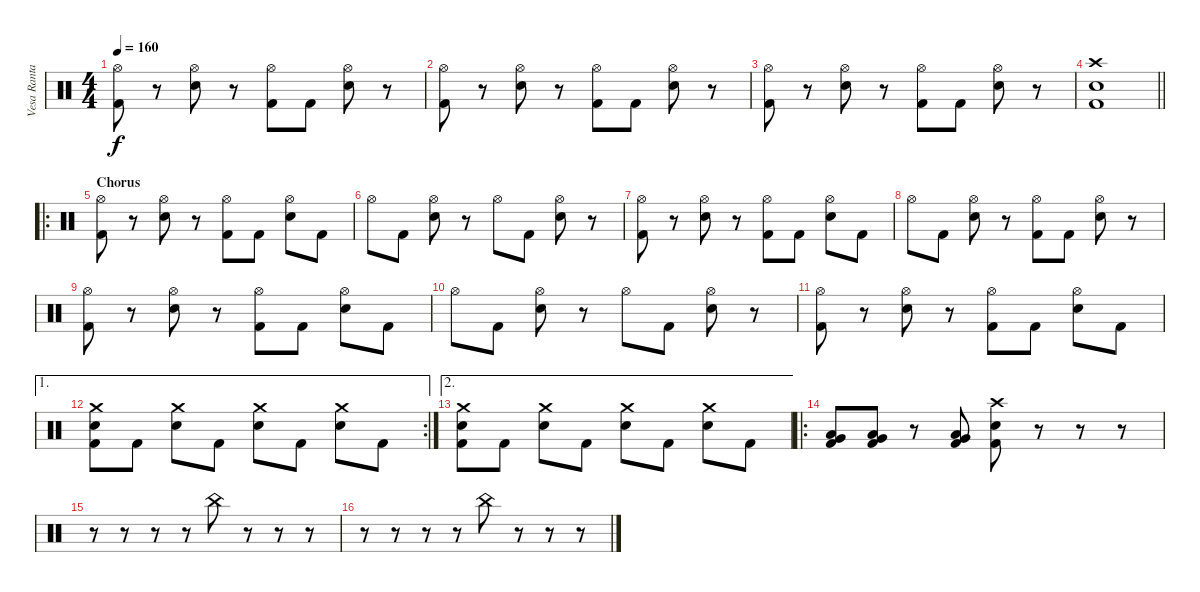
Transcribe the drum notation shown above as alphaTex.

\track ("Vesa Ranta" "Vesa Ranta") {instrument percussion}
\staff {score}
\articulation defaults
\ts (4 4)
\tempo 160
\clef neutral
\ks c
("Hi-Hat (open)" "Kick (hit) 2").8{dy f} r.8 ("Hi-Hat (open)" "Electric Snare (hit)").8 r.8 ("Hi-Hat (open)" "Kick (hit) 2").8 "Kick (hit) 2".8 ("Hi-Hat (open)" "Electric Snare (hit)").8 r.8 |
("Hi-Hat (open)" "Kick (hit) 2").8 r.8 ("Hi-Hat (open)" "Electric Snare (hit)").8 r.8 ("Hi-Hat (open)" "Kick (hit) 2").8 "Kick (hit) 2".8 ("Hi-Hat (open)" "Electric Snare (hit)").8 r.8 |
("Hi-Hat (open)" "Kick (hit) 2").8 r.8 ("Hi-Hat (open)" "Electric Snare (hit)").8 r.8 ("Hi-Hat (open)" "Kick (hit) 2").8 "Kick (hit) 2".8 ("Hi-Hat (open)" "Electric Snare (hit)").8 r.8 |
\barLineRight lightlight
("Crash high (hit)" "Electric Snare (hit)" "Kick (hit) 2").1 |
\ro
\section ("" "Chorus")
("Hi-Hat (open)" "Kick (hit) 2").8 r.8 ("Hi-Hat (open)" "Electric Snare (hit)").8 r.8 ("Hi-Hat (open)" "Kick (hit) 2").8 "Kick (hit) 2".8 ("Hi-Hat (open)" "Electric Snare (hit)").8 "Kick (hit) 2".8 |
"Hi-Hat (open)".8 "Kick (hit) 2".8 ("Hi-Hat (open)" "Electric Snare (hit)").8 r.8 "Hi-Hat (open)".8 "Kick (hit) 2".8 ("Hi-Hat (open)" "Electric Snare (hit)").8 r.8 |
("Hi-Hat (open)" "Kick (hit) 2").8 r.8 ("Hi-Hat (open)" "Electric Snare (hit)").8 r.8 ("Hi-Hat (open)" "Kick (hit) 2").8 "Kick (hit) 2".8 ("Hi-Hat (open)" "Electric Snare (hit)").8 "Kick (hit) 2".8 |
"Hi-Hat (open)".8 "Kick (hit) 2".8 ("Hi-Hat (open)" "Electric Snare (hit)").8 r.8 ("Hi-Hat (open)" "Kick (hit) 2").8 "Kick (hit) 2".8 ("Hi-Hat (open)" "Electric Snare (hit)").8 r.8 |
("Hi-Hat (open)" "Kick (hit) 2").8 r.8 ("Hi-Hat (open)" "Electric Snare (hit)").8 r.8 ("Hi-Hat (open)" "Kick (hit) 2").8 "Kick (hit) 2".8 ("Hi-Hat (open)" "Electric Snare (hit)").8 "Kick (hit) 2".8 |
"Hi-Hat (open)".8 "Kick (hit) 2".8 ("Hi-Hat (open)" "Electric Snare (hit)").8 r.8 "Hi-Hat (open)".8 "Kick (hit) 2".8 ("Hi-Hat (open)" "Electric Snare (hit)").8 r.8 |
("Hi-Hat (open)" "Kick (hit) 2").8 r.8 ("Hi-Hat (open)" "Electric Snare (hit)").8 r.8 ("Hi-Hat (open)" "Kick (hit) 2").8 "Kick (hit) 2".8 ("Hi-Hat (open)" "Electric Snare (hit)").8 "Kick (hit) 2".8 |
\ae 1
\rc 2
("Crash medium (hit)" "Electric Snare (hit)" "Kick (hit) 2").8 "Kick (hit) 2".8 ("Crash medium (hit)" "Electric Snare (hit)").8 "Kick (hit) 2".8 ("Crash medium (hit)" "Electric Snare (hit)").8 "Kick (hit) 2".8 ("Crash medium (hit)" "Electric Snare (hit)").8 "Kick (hit) 2".8 |
\ae 2
("Crash medium (hit)" "Electric Snare (hit)" "Kick (hit) 2").8 "Kick (hit) 2".8 ("Crash medium (hit)" "Electric Snare (hit)").8 "Kick (hit) 2".8 ("Crash medium (hit)" "Electric Snare (hit)").8 "Kick (hit) 2".8 ("Crash medium (hit)" "Electric Snare (hit)").8 "Kick (hit) 2".8 |
\ro
("Very Low Tom (hit)" "Low Tom (hit)" "Kick (hit) 2").8 ("Very Low Tom (hit)" "Low Tom (hit)" "Kick (hit) 2").8 r.8 ("Very Low Tom (hit)" "Low Tom (hit)" "Kick (hit) 2").8 ("Crash high (hit)" "Electric Snare (hit)" "Kick (hit) 2").8 r.8 r.8 r.8 |
r.8 r.8 r.8 r.8 "China (hit)".8 r.8 r.8 r.8 |
r.8 r.8 r.8 r.8 "China (hit)".8 r.8 r.8 r.8
